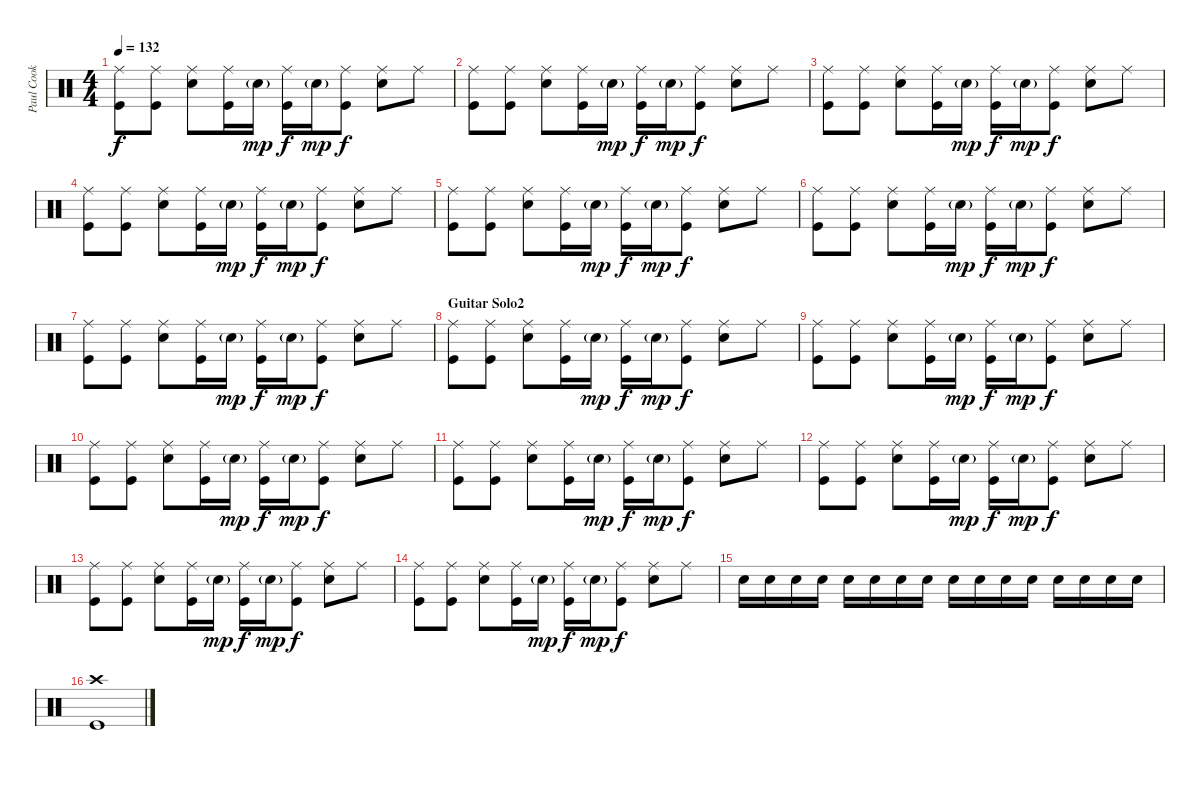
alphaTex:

\track ("Paul Cook" "Paul Cook") {instrument percussion}
\staff {score}
\articulation defaults
\ts (4 4)
\tempo 132
\clef neutral
\ks c
("Ride (middle)" "Kick (hit)").8{dy f} ("Ride (middle)" "Kick (hit)").8 ("Ride (middle)" "Snare (hit) 2").8 ("Ride (middle)" "Kick (hit)").16 "Snare (hit) 2"{g}.16{dy mp} ("Ride (middle)" "Kick (hit)").16{dy f} "Snare (hit) 2"{g}.16{dy mp} ("Ride (middle)" "Kick (hit)").8{dy f} ("Ride (middle)" "Snare (hit) 2").8 "Ride (middle)".8 |
("Ride (middle)" "Kick (hit)").8 ("Ride (middle)" "Kick (hit)").8 ("Ride (middle)" "Snare (hit) 2").8 ("Ride (middle)" "Kick (hit)").16 "Snare (hit) 2"{g}.16{dy mp} ("Ride (middle)" "Kick (hit)").16{dy f} "Snare (hit) 2"{g}.16{dy mp} ("Ride (middle)" "Kick (hit)").8{dy f} ("Ride (middle)" "Snare (hit) 2").8 "Ride (middle)".8 |
("Ride (middle)" "Kick (hit)").8 ("Ride (middle)" "Kick (hit)").8 ("Ride (middle)" "Snare (hit) 2").8 ("Ride (middle)" "Kick (hit)").16 "Snare (hit) 2"{g}.16{dy mp} ("Ride (middle)" "Kick (hit)").16{dy f} "Snare (hit) 2"{g}.16{dy mp} ("Ride (middle)" "Kick (hit)").8{dy f} ("Ride (middle)" "Snare (hit) 2").8 "Ride (middle)".8 |
("Ride (middle)" "Kick (hit)").8 ("Ride (middle)" "Kick (hit)").8 ("Ride (middle)" "Snare (hit) 2").8 ("Ride (middle)" "Kick (hit)").16 "Snare (hit) 2"{g}.16{dy mp} ("Ride (middle)" "Kick (hit)").16{dy f} "Snare (hit) 2"{g}.16{dy mp} ("Ride (middle)" "Kick (hit)").8{dy f} ("Ride (middle)" "Snare (hit) 2").8 "Ride (middle)".8 |
("Ride (middle)" "Kick (hit)").8 ("Ride (middle)" "Kick (hit)").8 ("Ride (middle)" "Snare (hit) 2").8 ("Ride (middle)" "Kick (hit)").16 "Snare (hit) 2"{g}.16{dy mp} ("Ride (middle)" "Kick (hit)").16{dy f} "Snare (hit) 2"{g}.16{dy mp} ("Ride (middle)" "Kick (hit)").8{dy f} ("Ride (middle)" "Snare (hit) 2").8 "Ride (middle)".8 |
("Ride (middle)" "Kick (hit)").8 ("Ride (middle)" "Kick (hit)").8 ("Ride (middle)" "Snare (hit) 2").8 ("Ride (middle)" "Kick (hit)").16 "Snare (hit) 2"{g}.16{dy mp} ("Ride (middle)" "Kick (hit)").16{dy f} "Snare (hit) 2"{g}.16{dy mp} ("Ride (middle)" "Kick (hit)").8{dy f} ("Ride (middle)" "Snare (hit) 2").8 "Ride (middle)".8 |
("Ride (middle)" "Kick (hit)").8 ("Ride (middle)" "Kick (hit)").8 ("Ride (middle)" "Snare (hit) 2").8 ("Ride (middle)" "Kick (hit)").16 "Snare (hit) 2"{g}.16{dy mp} ("Ride (middle)" "Kick (hit)").16{dy f} "Snare (hit) 2"{g}.16{dy mp} ("Ride (middle)" "Kick (hit)").8{dy f} ("Ride (middle)" "Snare (hit) 2").8 "Ride (middle)".8 |
\section ("" "Guitar Solo2")
("Ride (middle)" "Kick (hit)").8 ("Ride (middle)" "Kick (hit)").8 ("Ride (middle)" "Snare (hit) 2").8 ("Ride (middle)" "Kick (hit)").16 "Snare (hit) 2"{g}.16{dy mp} ("Ride (middle)" "Kick (hit)").16{dy f} "Snare (hit) 2"{g}.16{dy mp} ("Ride (middle)" "Kick (hit)").8{dy f} ("Ride (middle)" "Snare (hit) 2").8 "Ride (middle)".8 |
("Ride (middle)" "Kick (hit)").8 ("Ride (middle)" "Kick (hit)").8 ("Ride (middle)" "Snare (hit) 2").8 ("Ride (middle)" "Kick (hit)").16 "Snare (hit) 2"{g}.16{dy mp} ("Ride (middle)" "Kick (hit)").16{dy f} "Snare (hit) 2"{g}.16{dy mp} ("Ride (middle)" "Kick (hit)").8{dy f} ("Ride (middle)" "Snare (hit) 2").8 "Ride (middle)".8 |
("Ride (middle)" "Kick (hit)").8 ("Ride (middle)" "Kick (hit)").8 ("Ride (middle)" "Snare (hit) 2").8 ("Ride (middle)" "Kick (hit)").16 "Snare (hit) 2"{g}.16{dy mp} ("Ride (middle)" "Kick (hit)").16{dy f} "Snare (hit) 2"{g}.16{dy mp} ("Ride (middle)" "Kick (hit)").8{dy f} ("Ride (middle)" "Snare (hit) 2").8 "Ride (middle)".8 |
("Ride (middle)" "Kick (hit)").8 ("Ride (middle)" "Kick (hit)").8 ("Ride (middle)" "Snare (hit) 2").8 ("Ride (middle)" "Kick (hit)").16 "Snare (hit) 2"{g}.16{dy mp} ("Ride (middle)" "Kick (hit)").16{dy f} "Snare (hit) 2"{g}.16{dy mp} ("Ride (middle)" "Kick (hit)").8{dy f} ("Ride (middle)" "Snare (hit) 2").8 "Ride (middle)".8 |
("Ride (middle)" "Kick (hit)").8 ("Ride (middle)" "Kick (hit)").8 ("Ride (middle)" "Snare (hit) 2").8 ("Ride (middle)" "Kick (hit)").16 "Snare (hit) 2"{g}.16{dy mp} ("Ride (middle)" "Kick (hit)").16{dy f} "Snare (hit) 2"{g}.16{dy mp} ("Ride (middle)" "Kick (hit)").8{dy f} ("Ride (middle)" "Snare (hit) 2").8 "Ride (middle)".8 |
("Ride (middle)" "Kick (hit)").8 ("Ride (middle)" "Kick (hit)").8 ("Ride (middle)" "Snare (hit) 2").8 ("Ride (middle)" "Kick (hit)").16 "Snare (hit) 2"{g}.16{dy mp} ("Ride (middle)" "Kick (hit)").16{dy f} "Snare (hit) 2"{g}.16{dy mp} ("Ride (middle)" "Kick (hit)").8{dy f} ("Ride (middle)" "Snare (hit) 2").8 "Ride (middle)".8 |
("Ride (middle)" "Kick (hit)").8 ("Ride (middle)" "Kick (hit)").8 ("Ride (middle)" "Snare (hit) 2").8 ("Ride (middle)" "Kick (hit)").16 "Snare (hit) 2"{g}.16{dy mp} ("Ride (middle)" "Kick (hit)").16{dy f} "Snare (hit) 2"{g}.16{dy mp} ("Ride (middle)" "Kick (hit)").8{dy f} ("Ride (middle)" "Snare (hit) 2").8 "Ride (middle)".8 |
"Snare (hit) 2".16 "Snare (hit) 2".16 "Snare (hit) 2".16 "Snare (hit) 2".16 "Snare (hit) 2".16 "Snare (hit) 2".16 "Snare (hit) 2".16 "Snare (hit) 2".16 "Snare (hit) 2".16 "Snare (hit) 2".16 "Snare (hit) 2".16 "Snare (hit) 2".16 "Snare (hit) 2".16 "Snare (hit) 2".16 "Snare (hit) 2".16 "Snare (hit) 2".16 |
("Crash high (hit)" "Kick (hit)").1
